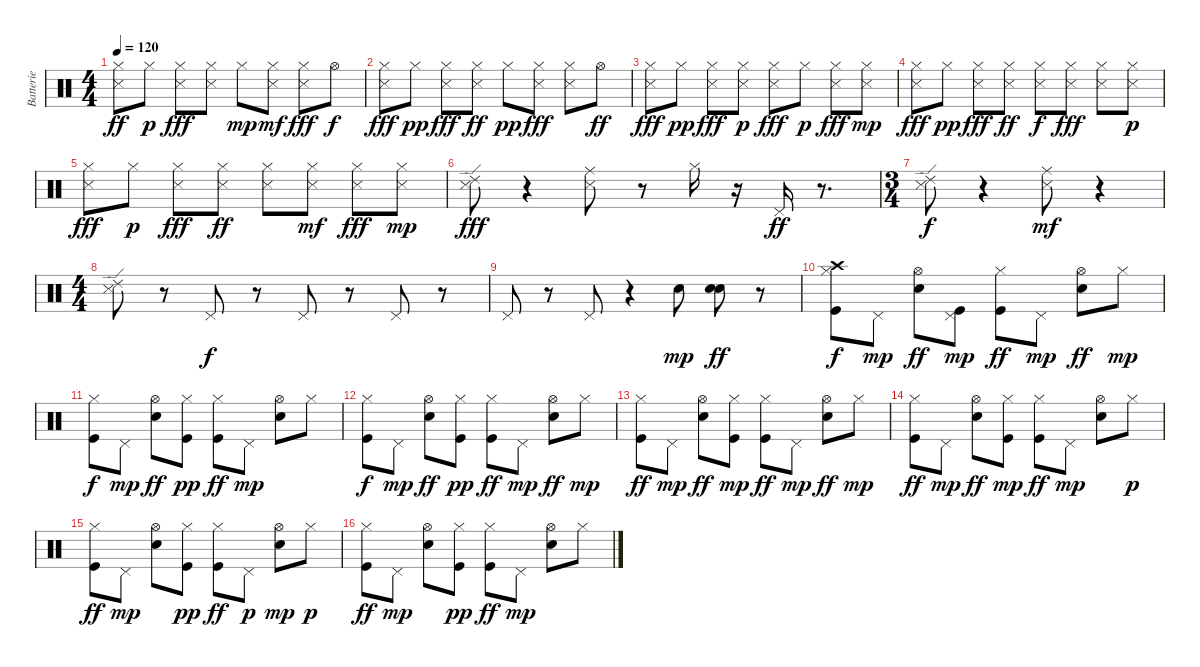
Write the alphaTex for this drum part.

\track ("Batterie" "Batterie") {instrument percussion}
\staff {score}
\articulation defaults
\ts (4 4)
\tempo 120
\clef neutral
\ks c
("Metronome (hit)" "Hi-Hat (closed)").8{dy ff} "Hi-Hat (closed)".8{dy p} ("Snare (side stick) 3" "Hi-Hat (closed)").8{dy fff} ("Metronome (hit)" "Hi-Hat (closed)").8 "Hi-Hat (closed)".8{dy mp} ("Metronome (hit)" "Hi-Hat (closed)").8{dy mf} ("Snare (side stick) 3" "Hi-Hat (closed)").8{dy fff} "Hi-Hat (open)".8{dy f} |
("Metronome (hit)" "Hi-Hat (closed)").8{dy fff} "Hi-Hat (closed)".8{dy pp} ("Snare (side stick) 3" "Hi-Hat (closed)").8{dy fff} ("Metronome (hit)" "Hi-Hat (closed)").8{dy ff} "Hi-Hat (closed)".8{dy pp} ("Metronome (hit)" "Hi-Hat (closed)").8{dy fff} ("Snare (side stick) 3" "Hi-Hat (closed)").8 "Hi-Hat (open)".8{dy ff} |
("Metronome (hit)" "Hi-Hat (closed)").8{dy fff} "Hi-Hat (closed)".8{dy pp} ("Snare (side stick) 3" "Hi-Hat (closed)").8{dy fff} ("Metronome (hit)" "Hi-Hat (closed)").8{dy p} ("Metronome (hit)" "Hi-Hat (closed)").8{dy fff} "Hi-Hat (closed)".8{dy p} ("Snare (side stick) 3" "Hi-Hat (closed)").8{dy fff} ("Metronome (hit)" "Hi-Hat (closed)").8{dy mp} |
("Metronome (hit)" "Hi-Hat (closed)").8{dy fff} "Hi-Hat (closed)".8{dy pp} ("Snare (side stick) 3" "Hi-Hat (closed)").8{dy fff} ("Metronome (hit)" "Hi-Hat (closed)").8{dy ff} ("Metronome (hit)" "Hi-Hat (closed)").8{dy f} ("Metronome (hit)" "Hi-Hat (closed)").8{dy fff} ("Snare (side stick) 3" "Hi-Hat (closed)").8 ("Metronome (hit)" "Hi-Hat (closed)").8{dy p} |
("Metronome (hit)" "Hi-Hat (closed)").8{dy fff} "Hi-Hat (closed)".8{dy p} ("Snare (side stick) 3" "Hi-Hat (closed)").8{dy fff} ("Metronome (hit)" "Hi-Hat (closed)").8{dy ff} ("Metronome (hit)" "Hi-Hat (closed)").8 ("Snare (side stick) 3" "Hi-Hat (closed)").8{dy mf} ("Snare (side stick) 3" "Hi-Hat (closed)").8{dy fff} ("Metronome (hit)" "Hi-Hat (closed)").8{dy mp} |
("Metronome (hit)" "Ride (edge) 2").8{dy fff} r.4 ("Metronome (hit)" "Ride (middle)").8 r.8 "Hi-Hat (closed)".16 r.16 "Pedal Hi-Hat (hit)".16{dy ff} r.8{d} |
\ts (3 4)
("Metronome (hit)" "Ride (edge) 2").8{dy f} r.4 ("Metronome (hit)" "Ride (middle)").8{dy mf} r.4 |
\ts (4 4)
("Metronome (hit)" "Ride (edge) 2").8 r.8 "Pedal Hi-Hat (hit)".8{dy f} r.8 "Pedal Hi-Hat (hit)".8 r.8 "Pedal Hi-Hat (hit)".8 r.8 |
"Pedal Hi-Hat (hit)".8 r.8 "Pedal Hi-Hat (hit)".8 r.4 "Electric Snare (hit)".8{dy mp} ("Metronome (bell)" "Electric Snare (hit)").8{dy ff} r.8 |
("Hi-Hat (closed)" "Crash high (hit)" "Kick (hit)").8{dy f} "Pedal Hi-Hat (hit)".8{dy mp} ("Hi-Hat (open)" "Electric Snare (hit)").8{dy ff} ("Pedal Hi-Hat (hit)" "Kick (hit)").8{dy mp} ("Hi-Hat (closed)" "Kick (hit)").8{dy ff} "Pedal Hi-Hat (hit)".8{dy mp} ("Hi-Hat (open)" "Electric Snare (hit)").8{dy ff} "Hi-Hat (closed)".8{dy mp} |
("Kick (hit)" "Hi-Hat (closed)").8{dy f} "Pedal Hi-Hat (hit)".8{dy mp} ("Hi-Hat (open)" "Electric Snare (hit)").8{dy ff} ("Kick (hit)" "Hi-Hat (closed)").8{dy pp} ("Kick (hit)" "Hi-Hat (closed)").8{dy ff} "Pedal Hi-Hat (hit)".8{dy mp} ("Hi-Hat (open)" "Electric Snare (hit)").8 "Hi-Hat (closed)".8 |
("Kick (hit)" "Hi-Hat (closed)").8{dy f} "Pedal Hi-Hat (hit)".8{dy mp} ("Hi-Hat (open)" "Electric Snare (hit)").8{dy ff} ("Kick (hit)" "Hi-Hat (closed)").8{dy pp} ("Kick (hit)" "Hi-Hat (closed)").8{dy ff} "Pedal Hi-Hat (hit)".8{dy mp} ("Hi-Hat (open)" "Electric Snare (hit)").8{dy ff} "Hi-Hat (closed)".8{dy mp} |
("Kick (hit)" "Hi-Hat (closed)").8{dy ff} "Pedal Hi-Hat (hit)".8{dy mp} ("Hi-Hat (open)" "Electric Snare (hit)").8{dy ff} ("Kick (hit)" "Hi-Hat (closed)").8{dy mp} ("Kick (hit)" "Hi-Hat (closed)").8{dy ff} "Pedal Hi-Hat (hit)".8{dy mp} ("Hi-Hat (open)" "Electric Snare (hit)").8{dy ff} "Hi-Hat (closed)".8{dy mp} |
("Kick (hit)" "Hi-Hat (closed)").8{dy ff} "Pedal Hi-Hat (hit)".8{dy mp} ("Hi-Hat (open)" "Electric Snare (hit)").8{dy ff} ("Kick (hit)" "Hi-Hat (closed)").8{dy mp} ("Kick (hit)" "Hi-Hat (closed)").8{dy ff} "Pedal Hi-Hat (hit)".8{dy mp} ("Hi-Hat (open)" "Electric Snare (hit)").8 "Hi-Hat (closed)".8{dy p} |
("Kick (hit)" "Hi-Hat (closed)").8{dy ff} "Pedal Hi-Hat (hit)".8{dy mp} ("Hi-Hat (open)" "Electric Snare (hit)").8 ("Kick (hit)" "Hi-Hat (closed)").8{dy pp} ("Kick (hit)" "Hi-Hat (closed)").8{dy ff} "Pedal Hi-Hat (hit)".8{dy p} ("Hi-Hat (open)" "Electric Snare (hit)").8{dy mp} "Hi-Hat (closed)".8{dy p} |
("Kick (hit)" "Hi-Hat (closed)").8{dy ff} "Pedal Hi-Hat (hit)".8{dy mp} ("Hi-Hat (open)" "Electric Snare (hit)").8 ("Kick (hit)" "Hi-Hat (closed)").8{dy pp} ("Kick (hit)" "Hi-Hat (closed)").8{dy ff} "Pedal Hi-Hat (hit)".8{dy mp} ("Hi-Hat (open)" "Electric Snare (hit)").8 "Hi-Hat (closed)".8
